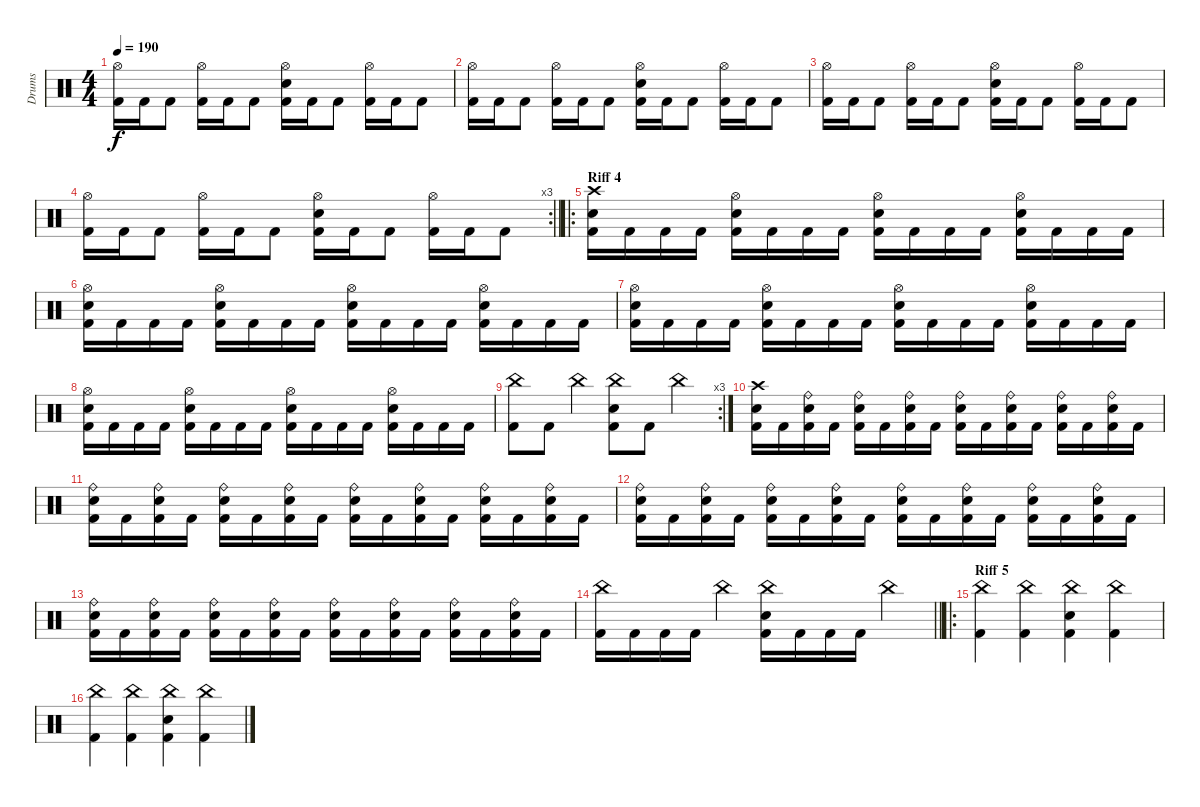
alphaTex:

\track ("Drums" "Drums") {instrument percussion}
\staff {score}
\articulation defaults
\ts (4 4)
\tempo 190
\clef neutral
\ks c
("Hi-Hat (open)" "Kick (hit) 2").16{dy f} "Kick (hit) 2".16 "Kick (hit) 2".8 ("Hi-Hat (open)" "Kick (hit) 2").16 "Kick (hit) 2".16 "Kick (hit) 2".8 ("Hi-Hat (open)" "Electric Snare (hit)" "Kick (hit) 2").16 "Kick (hit) 2".16 "Kick (hit) 2".8 ("Hi-Hat (open)" "Kick (hit) 2").16 "Kick (hit) 2".16 "Kick (hit) 2".8 |
("Hi-Hat (open)" "Kick (hit) 2").16 "Kick (hit) 2".16 "Kick (hit) 2".8 ("Hi-Hat (open)" "Kick (hit) 2").16 "Kick (hit) 2".16 "Kick (hit) 2".8 ("Hi-Hat (open)" "Electric Snare (hit)" "Kick (hit) 2").16 "Kick (hit) 2".16 "Kick (hit) 2".8 ("Hi-Hat (open)" "Kick (hit) 2").16 "Kick (hit) 2".16 "Kick (hit) 2".8 |
("Hi-Hat (open)" "Kick (hit) 2").16 "Kick (hit) 2".16 "Kick (hit) 2".8 ("Hi-Hat (open)" "Kick (hit) 2").16 "Kick (hit) 2".16 "Kick (hit) 2".8 ("Hi-Hat (open)" "Electric Snare (hit)" "Kick (hit) 2").16 "Kick (hit) 2".16 "Kick (hit) 2".8 ("Hi-Hat (open)" "Kick (hit) 2").16 "Kick (hit) 2".16 "Kick (hit) 2".8 |
\rc 3
\barLineRight lightlight
("Hi-Hat (open)" "Kick (hit) 2").16 "Kick (hit) 2".16 "Kick (hit) 2".8 ("Hi-Hat (open)" "Kick (hit) 2").16 "Kick (hit) 2".16 "Kick (hit) 2".8 ("Hi-Hat (open)" "Electric Snare (hit)" "Kick (hit) 2").16 "Kick (hit) 2".16 "Kick (hit) 2".8 ("Hi-Hat (open)" "Kick (hit) 2").16 "Kick (hit) 2".16 "Kick (hit) 2".8 |
\ro
\section ("" "Riff 4")
("Crash high (hit)" "Electric Snare (hit)" "Kick (hit) 2").16 "Kick (hit) 2".16 "Kick (hit) 2".16 "Kick (hit) 2".16 ("Hi-Hat (open)" "Electric Snare (hit)" "Kick (hit) 2").16 "Kick (hit) 2".16 "Kick (hit) 2".16 "Kick (hit) 2".16 ("Hi-Hat (open)" "Electric Snare (hit)" "Kick (hit) 2").16 "Kick (hit) 2".16 "Kick (hit) 2".16 "Kick (hit) 2".16 ("Hi-Hat (open)" "Electric Snare (hit)" "Kick (hit) 2").16 "Kick (hit) 2".16 "Kick (hit) 2".16 "Kick (hit) 2".16 |
("Hi-Hat (open)" "Electric Snare (hit)" "Kick (hit) 2").16 "Kick (hit) 2".16 "Kick (hit) 2".16 "Kick (hit) 2".16 ("Hi-Hat (open)" "Electric Snare (hit)" "Kick (hit) 2").16 "Kick (hit) 2".16 "Kick (hit) 2".16 "Kick (hit) 2".16 ("Hi-Hat (open)" "Electric Snare (hit)" "Kick (hit) 2").16 "Kick (hit) 2".16 "Kick (hit) 2".16 "Kick (hit) 2".16 ("Hi-Hat (open)" "Electric Snare (hit)" "Kick (hit) 2").16 "Kick (hit) 2".16 "Kick (hit) 2".16 "Kick (hit) 2".16 |
("Hi-Hat (open)" "Electric Snare (hit)" "Kick (hit) 2").16 "Kick (hit) 2".16 "Kick (hit) 2".16 "Kick (hit) 2".16 ("Hi-Hat (open)" "Electric Snare (hit)" "Kick (hit) 2").16 "Kick (hit) 2".16 "Kick (hit) 2".16 "Kick (hit) 2".16 ("Hi-Hat (open)" "Electric Snare (hit)" "Kick (hit) 2").16 "Kick (hit) 2".16 "Kick (hit) 2".16 "Kick (hit) 2".16 ("Hi-Hat (open)" "Electric Snare (hit)" "Kick (hit) 2").16 "Kick (hit) 2".16 "Kick (hit) 2".16 "Kick (hit) 2".16 |
("Hi-Hat (open)" "Electric Snare (hit)" "Kick (hit) 2").16 "Kick (hit) 2".16 "Kick (hit) 2".16 "Kick (hit) 2".16 ("Hi-Hat (open)" "Electric Snare (hit)" "Kick (hit) 2").16 "Kick (hit) 2".16 "Kick (hit) 2".16 "Kick (hit) 2".16 ("Hi-Hat (open)" "Electric Snare (hit)" "Kick (hit) 2").16 "Kick (hit) 2".16 "Kick (hit) 2".16 "Kick (hit) 2".16 ("Hi-Hat (open)" "Electric Snare (hit)" "Kick (hit) 2").16 "Kick (hit) 2".16 "Kick (hit) 2".16 "Kick (hit) 2".16 |
\rc 3
("China (hit)" "Kick (hit) 2").8 "Kick (hit) 2".8 "China (hit)".4 ("China (hit)" "Electric Snare (hit)" "Kick (hit) 2").8 "Kick (hit) 2".8 "China (hit)".4 |
("Crash high (hit)" "Electric Snare (hit)" "Kick (hit) 2").16 "Kick (hit) 2".16 ("Ride (bell)" "Electric Snare (hit)" "Kick (hit) 2").16 "Kick (hit) 2".16 ("Ride (bell)" "Electric Snare (hit)" "Kick (hit) 2").16 "Kick (hit) 2".16 ("Ride (bell)" "Electric Snare (hit)" "Kick (hit) 2").16 "Kick (hit) 2".16 ("Ride (bell)" "Electric Snare (hit)" "Kick (hit) 2").16 "Kick (hit) 2".16 ("Ride (bell)" "Electric Snare (hit)" "Kick (hit) 2").16 "Kick (hit) 2".16 ("Ride (bell)" "Electric Snare (hit)" "Kick (hit) 2").16 "Kick (hit) 2".16 ("Ride (bell)" "Electric Snare (hit)" "Kick (hit) 2").16 "Kick (hit) 2".16 |
("Ride (bell)" "Electric Snare (hit)" "Kick (hit) 2").16 "Kick (hit) 2".16 ("Ride (bell)" "Electric Snare (hit)" "Kick (hit) 2").16 "Kick (hit) 2".16 ("Ride (bell)" "Electric Snare (hit)" "Kick (hit) 2").16 "Kick (hit) 2".16 ("Ride (bell)" "Electric Snare (hit)" "Kick (hit) 2").16 "Kick (hit) 2".16 ("Ride (bell)" "Electric Snare (hit)" "Kick (hit) 2").16 "Kick (hit) 2".16 ("Ride (bell)" "Electric Snare (hit)" "Kick (hit) 2").16 "Kick (hit) 2".16 ("Ride (bell)" "Electric Snare (hit)" "Kick (hit) 2").16 "Kick (hit) 2".16 ("Ride (bell)" "Electric Snare (hit)" "Kick (hit) 2").16 "Kick (hit) 2".16 |
("Ride (bell)" "Electric Snare (hit)" "Kick (hit) 2").16 "Kick (hit) 2".16 ("Ride (bell)" "Electric Snare (hit)" "Kick (hit) 2").16 "Kick (hit) 2".16 ("Ride (bell)" "Electric Snare (hit)" "Kick (hit) 2").16 "Kick (hit) 2".16 ("Ride (bell)" "Electric Snare (hit)" "Kick (hit) 2").16 "Kick (hit) 2".16 ("Ride (bell)" "Electric Snare (hit)" "Kick (hit) 2").16 "Kick (hit) 2".16 ("Ride (bell)" "Electric Snare (hit)" "Kick (hit) 2").16 "Kick (hit) 2".16 ("Ride (bell)" "Electric Snare (hit)" "Kick (hit) 2").16 "Kick (hit) 2".16 ("Ride (bell)" "Electric Snare (hit)" "Kick (hit) 2").16 "Kick (hit) 2".16 |
("Ride (bell)" "Electric Snare (hit)" "Kick (hit) 2").16 "Kick (hit) 2".16 ("Ride (bell)" "Electric Snare (hit)" "Kick (hit) 2").16 "Kick (hit) 2".16 ("Ride (bell)" "Electric Snare (hit)" "Kick (hit) 2").16 "Kick (hit) 2".16 ("Ride (bell)" "Electric Snare (hit)" "Kick (hit) 2").16 "Kick (hit) 2".16 ("Ride (bell)" "Electric Snare (hit)" "Kick (hit) 2").16 "Kick (hit) 2".16 ("Ride (bell)" "Electric Snare (hit)" "Kick (hit) 2").16 "Kick (hit) 2".16 ("Ride (bell)" "Electric Snare (hit)" "Kick (hit) 2").16 "Kick (hit) 2".16 ("Ride (bell)" "Electric Snare (hit)" "Kick (hit) 2").16 "Kick (hit) 2".16 |
\barLineRight lightlight
("China (hit)" "Kick (hit) 2").16 "Kick (hit) 2".16 "Kick (hit) 2".16 "Kick (hit) 2".16 "China (hit)".4 ("China (hit)" "Electric Snare (hit)" "Kick (hit) 2").16 "Kick (hit) 2".16 "Kick (hit) 2".16 "Kick (hit) 2".16 "China (hit)".4 |
\ro
\section ("" "Riff 5")
("China (hit)" "Kick (hit) 2").4 ("China (hit)" "Kick (hit) 2").4 ("China (hit)" "Electric Snare (hit)" "Kick (hit) 2").4 ("China (hit)" "Kick (hit) 2").4 |
("China (hit)" "Kick (hit) 2").4 ("China (hit)" "Kick (hit) 2").4 ("China (hit)" "Electric Snare (hit)" "Kick (hit) 2").4 ("China (hit)" "Kick (hit) 2").4
